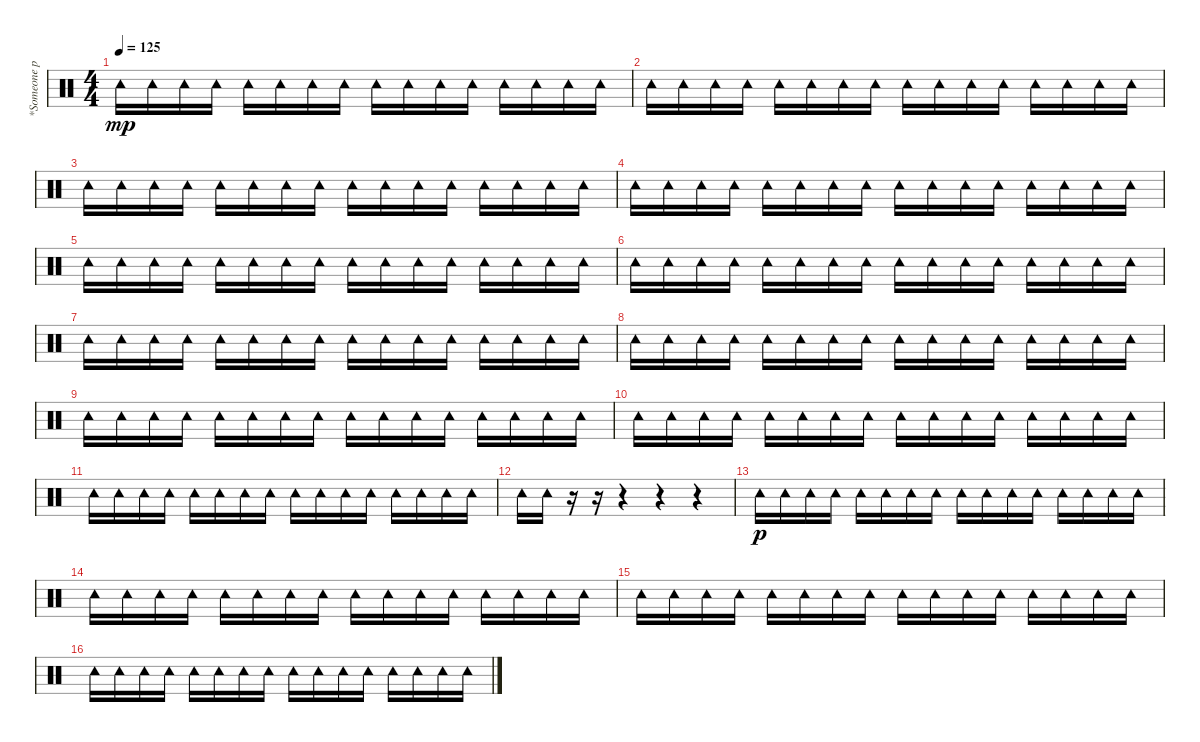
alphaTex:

\track ("*Someone play the tambourine" "*Someone p") {instrument percussion}
\staff {score}
\articulation defaults
\ts (4 4)
\tempo 125
\clef neutral
\ks c "Tambourine (hit)".16{dy mp} "Tambourine (hit)".16 "Tambourine (hit)".16 "Tambourine (hit)".16 "Tambourine (hit)".16 "Tambourine (hit)".16 "Tambourine (hit)".16 "Tambourine (hit)".16 "Tambourine (hit)".16 "Tambourine (hit)".16 "Tambourine (hit)".16 "Tambourine (hit)".16 "Tambourine (hit)".16 "Tambourine (hit)".16 "Tambourine (hit)".16 "Tambourine (hit)".16
|
"Tambourine (hit)".16 "Tambourine (hit)".16 "Tambourine (hit)".16 "Tambourine (hit)".16 "Tambourine (hit)".16 "Tambourine (hit)".16 "Tambourine (hit)".16 "Tambourine (hit)".16 "Tambourine (hit)".16 "Tambourine (hit)".16 "Tambourine (hit)".16 "Tambourine (hit)".16 "Tambourine (hit)".16 "Tambourine (hit)".16 "Tambourine (hit)".16 "Tambourine (hit)".16 |
"Tambourine (hit)".16 "Tambourine (hit)".16 "Tambourine (hit)".16 "Tambourine (hit)".16 "Tambourine (hit)".16 "Tambourine (hit)".16 "Tambourine (hit)".16 "Tambourine (hit)".16 "Tambourine (hit)".16 "Tambourine (hit)".16 "Tambourine (hit)".16 "Tambourine (hit)".16 "Tambourine (hit)".16 "Tambourine (hit)".16 "Tambourine (hit)".16 "Tambourine (hit)".16 |
"Tambourine (hit)".16 "Tambourine (hit)".16 "Tambourine (hit)".16 "Tambourine (hit)".16 "Tambourine (hit)".16 "Tambourine (hit)".16 "Tambourine (hit)".16 "Tambourine (hit)".16 "Tambourine (hit)".16 "Tambourine (hit)".16 "Tambourine (hit)".16 "Tambourine (hit)".16 "Tambourine (hit)".16 "Tambourine (hit)".16 "Tambourine (hit)".16 "Tambourine (hit)".16 |
"Tambourine (hit)".16 "Tambourine (hit)".16 "Tambourine (hit)".16 "Tambourine (hit)".16 "Tambourine (hit)".16 "Tambourine (hit)".16 "Tambourine (hit)".16 "Tambourine (hit)".16 "Tambourine (hit)".16 "Tambourine (hit)".16 "Tambourine (hit)".16 "Tambourine (hit)".16 "Tambourine (hit)".16 "Tambourine (hit)".16 "Tambourine (hit)".16 "Tambourine (hit)".16 |
"Tambourine (hit)".16 "Tambourine (hit)".16 "Tambourine (hit)".16 "Tambourine (hit)".16 "Tambourine (hit)".16 "Tambourine (hit)".16 "Tambourine (hit)".16 "Tambourine (hit)".16 "Tambourine (hit)".16 "Tambourine (hit)".16 "Tambourine (hit)".16 "Tambourine (hit)".16 "Tambourine (hit)".16 "Tambourine (hit)".16 "Tambourine (hit)".16 "Tambourine (hit)".16 |
"Tambourine (hit)".16 "Tambourine (hit)".16 "Tambourine (hit)".16 "Tambourine (hit)".16 "Tambourine (hit)".16 "Tambourine (hit)".16 "Tambourine (hit)".16 "Tambourine (hit)".16 "Tambourine (hit)".16 "Tambourine (hit)".16 "Tambourine (hit)".16 "Tambourine (hit)".16 "Tambourine (hit)".16 "Tambourine (hit)".16 "Tambourine (hit)".16 "Tambourine (hit)".16 |
"Tambourine (hit)".16 "Tambourine (hit)".16 "Tambourine (hit)".16 "Tambourine (hit)".16 "Tambourine (hit)".16 "Tambourine (hit)".16 "Tambourine (hit)".16 "Tambourine (hit)".16 "Tambourine (hit)".16 "Tambourine (hit)".16 "Tambourine (hit)".16 "Tambourine (hit)".16 "Tambourine (hit)".16 "Tambourine (hit)".16 "Tambourine (hit)".16 "Tambourine (hit)".16 |
"Tambourine (hit)".16 "Tambourine (hit)".16 "Tambourine (hit)".16 "Tambourine (hit)".16 "Tambourine (hit)".16 "Tambourine (hit)".16 "Tambourine (hit)".16 "Tambourine (hit)".16 "Tambourine (hit)".16 "Tambourine (hit)".16 "Tambourine (hit)".16 "Tambourine (hit)".16 "Tambourine (hit)".16 "Tambourine (hit)".16 "Tambourine (hit)".16 "Tambourine (hit)".16 |
"Tambourine (hit)".16 "Tambourine (hit)".16 "Tambourine (hit)".16 "Tambourine (hit)".16 "Tambourine (hit)".16 "Tambourine (hit)".16 "Tambourine (hit)".16 "Tambourine (hit)".16 "Tambourine (hit)".16 "Tambourine (hit)".16 "Tambourine (hit)".16 "Tambourine (hit)".16 "Tambourine (hit)".16 "Tambourine (hit)".16 "Tambourine (hit)".16 "Tambourine (hit)".16 |
"Tambourine (hit)".16 "Tambourine (hit)".16 "Tambourine (hit)".16 "Tambourine (hit)".16 "Tambourine (hit)".16 "Tambourine (hit)".16 "Tambourine (hit)".16 "Tambourine (hit)".16 "Tambourine (hit)".16 "Tambourine (hit)".16 "Tambourine (hit)".16 "Tambourine (hit)".16 "Tambourine (hit)".16 "Tambourine (hit)".16 "Tambourine (hit)".16 "Tambourine (hit)".16 |
"Tambourine (hit)".16 "Tambourine (hit)".16 r.16 r.16 r.4 r.4 r.4 |
"Tambourine (hit)".16{dy p} "Tambourine (hit)".16 "Tambourine (hit)".16 "Tambourine (hit)".16 "Tambourine (hit)".16 "Tambourine (hit)".16 "Tambourine (hit)".16 "Tambourine (hit)".16 "Tambourine (hit)".16 "Tambourine (hit)".16 "Tambourine (hit)".16 "Tambourine (hit)".16 "Tambourine (hit)".16 "Tambourine (hit)".16 "Tambourine (hit)".16 "Tambourine (hit)".16 |
"Tambourine (hit)".16 "Tambourine (hit)".16 "Tambourine (hit)".16 "Tambourine (hit)".16 "Tambourine (hit)".16 "Tambourine (hit)".16 "Tambourine (hit)".16 "Tambourine (hit)".16 "Tambourine (hit)".16 "Tambourine (hit)".16 "Tambourine (hit)".16 "Tambourine (hit)".16 "Tambourine (hit)".16 "Tambourine (hit)".16 "Tambourine (hit)".16 "Tambourine (hit)".16 |
"Tambourine (hit)".16 "Tambourine (hit)".16 "Tambourine (hit)".16 "Tambourine (hit)".16 "Tambourine (hit)".16 "Tambourine (hit)".16 "Tambourine (hit)".16 "Tambourine (hit)".16 "Tambourine (hit)".16 "Tambourine (hit)".16 "Tambourine (hit)".16 "Tambourine (hit)".16 "Tambourine (hit)".16 "Tambourine (hit)".16 "Tambourine (hit)".16 "Tambourine (hit)".16 |
"Tambourine (hit)".16 "Tambourine (hit)".16 "Tambourine (hit)".16 "Tambourine (hit)".16 "Tambourine (hit)".16 "Tambourine (hit)".16 "Tambourine (hit)".16 "Tambourine (hit)".16 "Tambourine (hit)".16 "Tambourine (hit)".16 "Tambourine (hit)".16 "Tambourine (hit)".16 "Tambourine (hit)".16 "Tambourine (hit)".16 "Tambourine (hit)".16 "Tambourine (hit)".16
